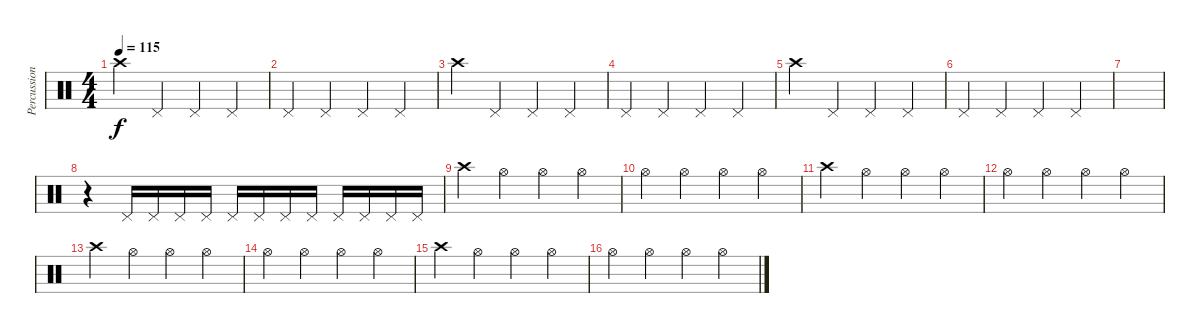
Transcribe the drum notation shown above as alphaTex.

\track ("Percussion" "Percussion") {instrument percussion}
\staff {score}
\articulation defaults
\ts (4 4)
\tempo 115
\clef neutral
\ks c "Crash high (hit)".4{dy f} "Pedal Hi-Hat (hit)".4 "Pedal Hi-Hat (hit)".4 "Pedal Hi-Hat (hit)".4
|
"Pedal Hi-Hat (hit)".4 "Pedal Hi-Hat (hit)".4 "Pedal Hi-Hat (hit)".4 "Pedal Hi-Hat (hit)".4 |
"Crash high (hit)".4 "Pedal Hi-Hat (hit)".4 "Pedal Hi-Hat (hit)".4 "Pedal Hi-Hat (hit)".4 |
"Pedal Hi-Hat (hit)".4 "Pedal Hi-Hat (hit)".4 "Pedal Hi-Hat (hit)".4 "Pedal Hi-Hat (hit)".4 |
"Crash high (hit)".4 "Pedal Hi-Hat (hit)".4 "Pedal Hi-Hat (hit)".4 "Pedal Hi-Hat (hit)".4 |
"Pedal Hi-Hat (hit)".4 "Pedal Hi-Hat (hit)".4 "Pedal Hi-Hat (hit)".4 "Pedal Hi-Hat (hit)".4 |
|
r.4 "Pedal Hi-Hat (hit)".16 "Pedal Hi-Hat (hit)".16 "Pedal Hi-Hat (hit)".16 "Pedal Hi-Hat (hit)".16 "Pedal Hi-Hat (hit)".16 "Pedal Hi-Hat (hit)".16 "Pedal Hi-Hat (hit)".16 "Pedal Hi-Hat (hit)".16 "Pedal Hi-Hat (hit)".16 "Pedal Hi-Hat (hit)".16 "Pedal Hi-Hat (hit)".16 "Pedal Hi-Hat (hit)".16 |
"Crash high (hit)".4 "Hi-Hat (open)".4 "Hi-Hat (open)".4 "Hi-Hat (open)".4 |
"Hi-Hat (open)".4 "Hi-Hat (open)".4 "Hi-Hat (open)".4 "Hi-Hat (open)".4 |
"Crash high (hit)".4 "Hi-Hat (open)".4 "Hi-Hat (open)".4 "Hi-Hat (open)".4 |
"Hi-Hat (open)".4 "Hi-Hat (open)".4 "Hi-Hat (open)".4 "Hi-Hat (open)".4 |
"Crash high (hit)".4 "Hi-Hat (open)".4 "Hi-Hat (open)".4 "Hi-Hat (open)".4 |
"Hi-Hat (open)".4 "Hi-Hat (open)".4 "Hi-Hat (open)".4 "Hi-Hat (open)".4 |
"Crash high (hit)".4 "Hi-Hat (open)".4 "Hi-Hat (open)".4 "Hi-Hat (open)".4 |
"Hi-Hat (open)".4 "Hi-Hat (open)".4 "Hi-Hat (open)".4 "Hi-Hat (open)".4
